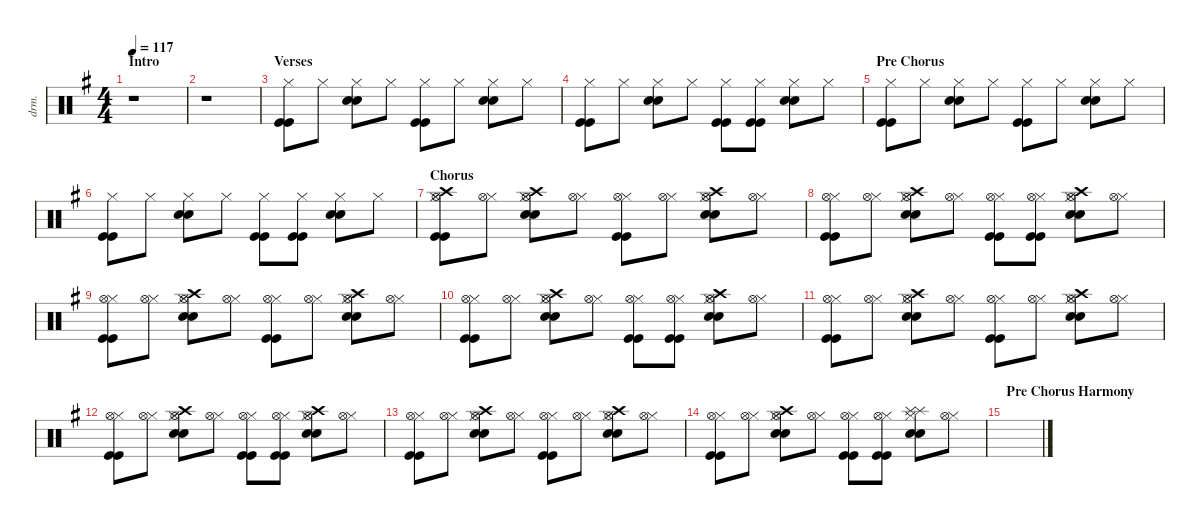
\defaultSystemsLayout 4
\hideDynamics
\bracketExtendMode nobrackets
\otherSystemsTrackNameOrientation horizontal
\track ("Drums" "drm.") {instrument percussion}
\staff {score}
\articulation defaults
\ts (4 4)
\section ("" "Intro")
\tempo 117
\clef neutral
\ks g
r.1{dy f} |
r.1 |
\section ("" "Verses")
("Kick (hit)"{acc forcenatural} "Kick (hit)"{acc forcenatural} "Hi-Hat (closed)"{acc forcenatural}).8 "Hi-Hat (closed)"{acc forcenatural}.8 ("Snare (hit) 2"{acc forcenatural} "Snare (hit) 2"{acc forcenatural} "Hi-Hat (closed)"{acc forcenatural}).8{dy mf} "Hi-Hat (closed)"{acc forcenatural}.8{dy f} ("Kick (hit)"{acc forcenatural} "Kick (hit)"{acc forcenatural} "Hi-Hat (closed)"{acc forcenatural}).8 "Hi-Hat (closed)"{acc forcenatural}.8 ("Snare (hit) 2"{acc forcenatural} "Snare (hit) 2"{acc forcenatural} "Hi-Hat (closed)"{acc forcenatural}).8{dy mf} "Hi-Hat (closed)"{acc forcenatural}.8{dy f} |
("Kick (hit)"{acc forcenatural} "Kick (hit)"{acc forcenatural} "Hi-Hat (closed)"{acc forcenatural}).8 "Hi-Hat (closed)"{acc forcenatural}.8 ("Snare (hit) 2"{acc forcenatural} "Snare (hit) 2"{acc forcenatural} "Hi-Hat (closed)"{acc forcenatural}).8{dy mf} "Hi-Hat (closed)"{acc forcenatural}.8{dy f} ("Kick (hit)"{acc forcenatural} "Kick (hit)"{acc forcenatural} "Hi-Hat (closed)"{acc forcenatural}).8 ("Kick (hit)"{acc forcenatural} "Kick (hit)"{acc forcenatural} "Hi-Hat (closed)"{acc forcenatural}).8 ("Snare (hit) 2"{acc forcenatural} "Snare (hit) 2"{acc forcenatural} "Hi-Hat (closed)"{acc forcenatural}).8{dy mf} "Hi-Hat (closed)"{acc forcenatural}.8{dy f} |
\section ("" "Pre Chorus")
("Kick (hit)"{acc forcenatural} "Kick (hit)"{acc forcenatural} "Hi-Hat (closed)"{acc forcenatural}).8 "Hi-Hat (closed)"{acc forcenatural}.8 ("Snare (hit) 2"{acc forcenatural} "Snare (hit) 2"{acc forcenatural} "Hi-Hat (closed)"{acc forcenatural}).8{dy mf} "Hi-Hat (closed)"{acc forcenatural}.8{dy f} ("Kick (hit)"{acc forcenatural} "Kick (hit)"{acc forcenatural} "Hi-Hat (closed)"{acc forcenatural}).8 "Hi-Hat (closed)"{acc forcenatural}.8 ("Snare (hit) 2"{acc forcenatural} "Snare (hit) 2"{acc forcenatural} "Hi-Hat (closed)"{acc forcenatural}).8{dy mf} "Hi-Hat (closed)"{acc forcenatural}.8{dy f} |
("Kick (hit)"{acc forcenatural} "Kick (hit)"{acc forcenatural} "Hi-Hat (closed)"{acc forcenatural}).8 "Hi-Hat (closed)"{acc forcenatural}.8 ("Snare (hit) 2"{acc forcenatural} "Snare (hit) 2"{acc forcenatural} "Hi-Hat (closed)"{acc forcenatural}).8{dy mf} "Hi-Hat (closed)"{acc forcenatural}.8{dy f} ("Kick (hit)"{acc forcenatural} "Kick (hit)"{acc forcenatural} "Hi-Hat (closed)"{acc forcenatural}).8 ("Kick (hit)"{acc forcenatural} "Kick (hit)"{acc forcenatural} "Hi-Hat (closed)"{acc forcenatural}).8 ("Snare (hit) 2"{acc forcenatural} "Snare (hit) 2"{acc forcenatural} "Hi-Hat (closed)"{acc forcenatural}).8{dy mf} "Hi-Hat (closed)"{acc forcenatural}.8{dy f} |
\section ("" "Chorus")
("Kick (hit)"{acc forcenatural} "Kick (hit)"{acc forcenatural} "Hi-Hat (closed)"{acc forcenatural} "Hi-Hat (open)"{acc forcenatural} "Crash high (hit)"{acc forcenatural}).8 ("Hi-Hat (closed)"{acc forcenatural} "Hi-Hat (open)"{acc forcenatural}).8 ("Snare (hit) 2"{acc forcenatural} "Snare (hit) 2"{acc forcenatural} "Hi-Hat (closed)"{acc forcenatural} "Hi-Hat (open)"{acc forcenatural} "Crash high (hit)"{acc forcenatural}).8 ("Hi-Hat (closed)"{acc forcenatural} "Hi-Hat (open)"{acc forcenatural}).8 ("Kick (hit)"{acc forcenatural} "Kick (hit)"{acc forcenatural} "Hi-Hat (closed)"{acc forcenatural} "Hi-Hat (open)"{acc forcenatural}).8 ("Hi-Hat (closed)"{acc forcenatural} "Hi-Hat (open)"{acc forcenatural}).8 ("Snare (hit) 2"{acc forcenatural} "Snare (hit) 2"{acc forcenatural} "Hi-Hat (closed)"{acc forcenatural} "Hi-Hat (open)"{acc forcenatural} "Crash high (hit)"{acc forcenatural}).8 ("Hi-Hat (closed)"{acc forcenatural} "Hi-Hat (open)"{acc forcenatural}).8 |
("Kick (hit)"{acc forcenatural} "Kick (hit)"{acc forcenatural} "Hi-Hat (closed)"{acc forcenatural} "Hi-Hat (open)"{acc forcenatural}).8 ("Hi-Hat (closed)"{acc forcenatural} "Hi-Hat (open)"{acc forcenatural}).8 ("Snare (hit) 2"{acc forcenatural} "Snare (hit) 2"{acc forcenatural} "Hi-Hat (closed)"{acc forcenatural} "Hi-Hat (open)"{acc forcenatural} "Crash high (hit)"{acc forcenatural}).8 ("Hi-Hat (closed)"{acc forcenatural} "Hi-Hat (open)"{acc forcenatural}).8 ("Kick (hit)"{acc forcenatural} "Kick (hit)"{acc forcenatural} "Hi-Hat (closed)"{acc forcenatural} "Hi-Hat (open)"{acc forcenatural}).8 ("Kick (hit)"{acc forcenatural} "Kick (hit)"{acc forcenatural} "Hi-Hat (closed)"{acc forcenatural} "Hi-Hat (open)"{acc forcenatural}).8 ("Snare (hit) 2"{acc forcenatural} "Snare (hit) 2"{acc forcenatural} "Hi-Hat (closed)"{acc forcenatural} "Hi-Hat (open)"{acc forcenatural} "Crash high (hit)"{acc forcenatural}).8 ("Hi-Hat (closed)"{acc forcenatural} "Hi-Hat (open)"{acc forcenatural}).8 |
("Kick (hit)"{acc forcenatural} "Kick (hit)"{acc forcenatural} "Hi-Hat (closed)"{acc forcenatural} "Hi-Hat (open)"{acc forcenatural}).8 ("Hi-Hat (closed)"{acc forcenatural} "Hi-Hat (open)"{acc forcenatural}).8 ("Snare (hit) 2"{acc forcenatural} "Snare (hit) 2"{acc forcenatural} "Hi-Hat (closed)"{acc forcenatural} "Hi-Hat (open)"{acc forcenatural} "Crash high (hit)"{acc forcenatural}).8 ("Hi-Hat (closed)"{acc forcenatural} "Hi-Hat (open)"{acc forcenatural}).8 ("Kick (hit)"{acc forcenatural} "Kick (hit)"{acc forcenatural} "Hi-Hat (closed)"{acc forcenatural} "Hi-Hat (open)"{acc forcenatural}).8 ("Hi-Hat (closed)"{acc forcenatural} "Hi-Hat (open)"{acc forcenatural}).8 ("Snare (hit) 2"{acc forcenatural} "Snare (hit) 2"{acc forcenatural} "Hi-Hat (closed)"{acc forcenatural} "Hi-Hat (open)"{acc forcenatural} "Crash high (hit)"{acc forcenatural}).8 ("Hi-Hat (closed)"{acc forcenatural} "Hi-Hat (open)"{acc forcenatural}).8 |
("Kick (hit)"{acc forcenatural} "Kick (hit)"{acc forcenatural} "Hi-Hat (closed)"{acc forcenatural} "Hi-Hat (open)"{acc forcenatural}).8 ("Hi-Hat (closed)"{acc forcenatural} "Hi-Hat (open)"{acc forcenatural}).8 ("Snare (hit) 2"{acc forcenatural} "Snare (hit) 2"{acc forcenatural} "Hi-Hat (closed)"{acc forcenatural} "Hi-Hat (open)"{acc forcenatural} "Crash high (hit)"{acc forcenatural}).8 ("Hi-Hat (closed)"{acc forcenatural} "Hi-Hat (open)"{acc forcenatural}).8 ("Kick (hit)"{acc forcenatural} "Kick (hit)"{acc forcenatural} "Hi-Hat (closed)"{acc forcenatural} "Hi-Hat (open)"{acc forcenatural}).8 ("Kick (hit)"{acc forcenatural} "Kick (hit)"{acc forcenatural} "Hi-Hat (closed)"{acc forcenatural} "Hi-Hat (open)"{acc forcenatural}).8 ("Snare (hit) 2"{acc forcenatural} "Snare (hit) 2"{acc forcenatural} "Hi-Hat (closed)"{acc forcenatural} "Hi-Hat (open)"{acc forcenatural} "Crash high (hit)"{acc forcenatural}).8 ("Hi-Hat (closed)"{acc forcenatural} "Hi-Hat (open)"{acc forcenatural}).8 |
("Kick (hit)"{acc forcenatural} "Kick (hit)"{acc forcenatural} "Hi-Hat (closed)"{acc forcenatural} "Hi-Hat (open)"{acc forcenatural}).8 ("Hi-Hat (closed)"{acc forcenatural} "Hi-Hat (open)"{acc forcenatural}).8 ("Snare (hit) 2"{acc forcenatural} "Snare (hit) 2"{acc forcenatural} "Hi-Hat (closed)"{acc forcenatural} "Hi-Hat (open)"{acc forcenatural} "Crash high (hit)"{acc forcenatural}).8 ("Hi-Hat (closed)"{acc forcenatural} "Hi-Hat (open)"{acc forcenatural}).8 ("Kick (hit)"{acc forcenatural} "Kick (hit)"{acc forcenatural} "Hi-Hat (closed)"{acc forcenatural} "Hi-Hat (open)"{acc forcenatural}).8 ("Hi-Hat (closed)"{acc forcenatural} "Hi-Hat (open)"{acc forcenatural}).8 ("Snare (hit) 2"{acc forcenatural} "Snare (hit) 2"{acc forcenatural} "Hi-Hat (closed)"{acc forcenatural} "Hi-Hat (open)"{acc forcenatural} "Crash high (hit)"{acc forcenatural}).8 ("Hi-Hat (closed)"{acc forcenatural} "Hi-Hat (open)"{acc forcenatural}).8 |
("Kick (hit)"{acc forcenatural} "Kick (hit)"{acc forcenatural} "Hi-Hat (closed)"{acc forcenatural} "Hi-Hat (open)"{acc forcenatural}).8 ("Hi-Hat (closed)"{acc forcenatural} "Hi-Hat (open)"{acc forcenatural}).8 ("Snare (hit) 2"{acc forcenatural} "Snare (hit) 2"{acc forcenatural} "Hi-Hat (closed)"{acc forcenatural} "Hi-Hat (open)"{acc forcenatural} "Crash high (hit)"{acc forcenatural}).8 ("Hi-Hat (closed)"{acc forcenatural} "Hi-Hat (open)"{acc forcenatural}).8 ("Kick (hit)"{acc forcenatural} "Kick (hit)"{acc forcenatural} "Hi-Hat (closed)"{acc forcenatural} "Hi-Hat (open)"{acc forcenatural}).8 ("Kick (hit)"{acc forcenatural} "Kick (hit)"{acc forcenatural} "Hi-Hat (closed)"{acc forcenatural} "Hi-Hat (open)"{acc forcenatural}).8 ("Snare (hit) 2"{acc forcenatural} "Snare (hit) 2"{acc forcenatural} "Hi-Hat (closed)"{acc forcenatural} "Hi-Hat (open)"{acc forcenatural} "Crash high (hit)"{acc forcenatural}).8 ("Hi-Hat (closed)"{acc forcenatural} "Hi-Hat (open)"{acc forcenatural}).8 |
("Kick (hit)"{acc forcenatural} "Kick (hit)"{acc forcenatural} "Hi-Hat (closed)"{acc forcenatural} "Hi-Hat (open)"{acc forcenatural}).8 ("Hi-Hat (closed)"{acc forcenatural} "Hi-Hat (open)"{acc forcenatural}).8 ("Snare (hit) 2"{acc forcenatural} "Snare (hit) 2"{acc forcenatural} "Hi-Hat (closed)"{acc forcenatural} "Hi-Hat (open)"{acc forcenatural} "Crash high (hit)"{acc forcenatural}).8 ("Hi-Hat (closed)"{acc forcenatural} "Hi-Hat (open)"{acc forcenatural}).8 ("Kick (hit)"{acc forcenatural} "Kick (hit)"{acc forcenatural} "Hi-Hat (closed)"{acc forcenatural} "Hi-Hat (open)"{acc forcenatural}).8 ("Hi-Hat (closed)"{acc forcenatural} "Hi-Hat (open)"{acc forcenatural}).8 ("Snare (hit) 2"{acc forcenatural} "Snare (hit) 2"{acc forcenatural} "Hi-Hat (closed)"{acc forcenatural} "Hi-Hat (open)"{acc forcenatural} "Crash high (hit)"{acc forcenatural}).8 ("Hi-Hat (closed)"{acc forcenatural} "Hi-Hat (open)"{acc forcenatural}).8 |
("Kick (hit)"{acc forcenatural} "Kick (hit)"{acc forcenatural} "Hi-Hat (closed)"{acc forcenatural} "Hi-Hat (open)"{acc forcenatural}).8 ("Hi-Hat (closed)"{acc forcenatural} "Hi-Hat (open)"{acc forcenatural}).8 ("Snare (hit) 2"{acc forcenatural} "Snare (hit) 2"{acc forcenatural} "Hi-Hat (closed)"{acc forcenatural} "Hi-Hat (open)"{acc forcenatural} "Crash high (hit)"{acc forcenatural}).8 ("Hi-Hat (closed)"{acc forcenatural} "Hi-Hat (open)"{acc forcenatural}).8 ("Kick (hit)"{acc forcenatural} "Kick (hit)"{acc forcenatural} "Hi-Hat (closed)"{acc forcenatural} "Hi-Hat (open)"{acc forcenatural}).8 ("Kick (hit)"{acc forcenatural} "Kick (hit)"{acc forcenatural} "Hi-Hat (closed)"{acc forcenatural} "Hi-Hat (open)"{acc forcenatural}).8 ("Snare (hit) 2"{acc forcenatural} "Snare (hit) 2"{acc forcenatural} "Hi-Hat (closed)"{acc forcenatural} "Splash (hit)"{acc forcenatural} "Splash (hit)"{acc forcenatural}).8{dy ff} ("Hi-Hat (closed)"{acc forcenatural} "Hi-Hat (open)"{acc forcenatural}).8{dy f} |
\section ("" "Pre Chorus Harmony")
